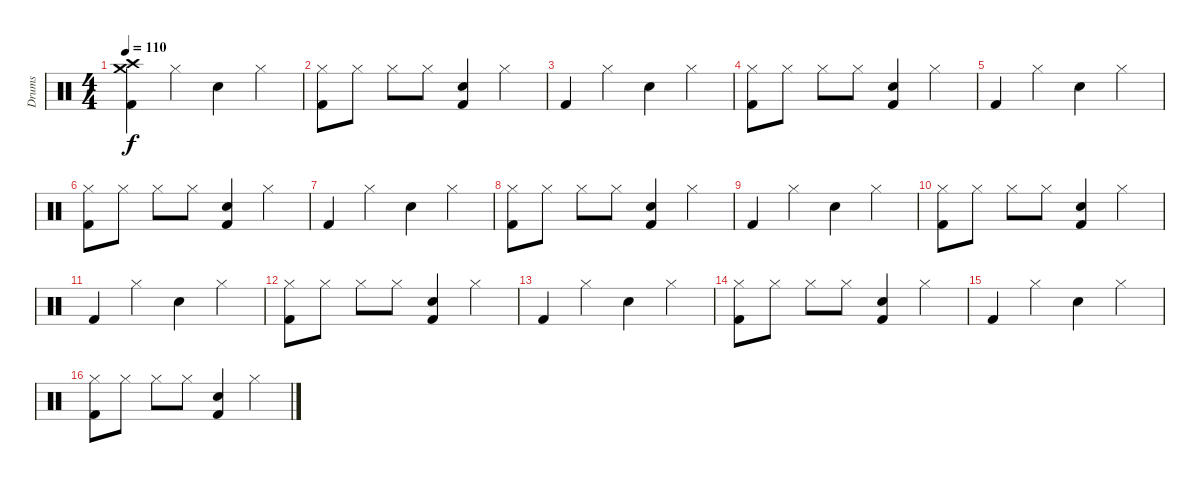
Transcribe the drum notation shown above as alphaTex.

\track ("Drums" "Drums") {instrument percussion}
\staff {score}
\articulation defaults
\ts (4 4)
\tempo 110
\clef neutral
\ks c
("Crash medium (hit)" "Crash high (hit)" "Kick (hit) 2").4{dy f} "Hi-Hat (closed)".4 "Snare (hit) 2".4 "Hi-Hat (closed)".4 |
("Hi-Hat (closed)" "Kick (hit) 2").8 "Hi-Hat (closed)".8 "Hi-Hat (closed)".8 "Hi-Hat (closed)".8 ("Snare (hit) 2" "Kick (hit) 2").4 "Hi-Hat (closed)".4 |
"Kick (hit) 2".4 "Hi-Hat (closed)".4 "Snare (hit) 2".4 "Hi-Hat (closed)".4 |
("Hi-Hat (closed)" "Kick (hit) 2").8 "Hi-Hat (closed)".8 "Hi-Hat (closed)".8 "Hi-Hat (closed)".8 ("Snare (hit) 2" "Kick (hit) 2").4 "Hi-Hat (closed)".4 |
"Kick (hit) 2".4 "Hi-Hat (closed)".4 "Snare (hit) 2".4 "Hi-Hat (closed)".4 |
("Hi-Hat (closed)" "Kick (hit) 2").8 "Hi-Hat (closed)".8 "Hi-Hat (closed)".8 "Hi-Hat (closed)".8 ("Snare (hit) 2" "Kick (hit) 2").4 "Hi-Hat (closed)".4 |
"Kick (hit) 2".4 "Hi-Hat (closed)".4 "Snare (hit) 2".4 "Hi-Hat (closed)".4 |
("Hi-Hat (closed)" "Kick (hit) 2").8 "Hi-Hat (closed)".8 "Hi-Hat (closed)".8 "Hi-Hat (closed)".8 ("Snare (hit) 2" "Kick (hit) 2").4 "Hi-Hat (closed)".4 |
"Kick (hit) 2".4 "Hi-Hat (closed)".4 "Snare (hit) 2".4 "Hi-Hat (closed)".4 |
("Hi-Hat (closed)" "Kick (hit) 2").8 "Hi-Hat (closed)".8 "Hi-Hat (closed)".8 "Hi-Hat (closed)".8 ("Snare (hit) 2" "Kick (hit) 2").4 "Hi-Hat (closed)".4 |
"Kick (hit) 2".4 "Hi-Hat (closed)".4 "Snare (hit) 2".4 "Hi-Hat (closed)".4 |
("Hi-Hat (closed)" "Kick (hit) 2").8 "Hi-Hat (closed)".8 "Hi-Hat (closed)".8 "Hi-Hat (closed)".8 ("Snare (hit) 2" "Kick (hit) 2").4 "Hi-Hat (closed)".4 |
"Kick (hit) 2".4 "Hi-Hat (closed)".4 "Snare (hit) 2".4 "Hi-Hat (closed)".4 |
("Hi-Hat (closed)" "Kick (hit) 2").8 "Hi-Hat (closed)".8 "Hi-Hat (closed)".8 "Hi-Hat (closed)".8 ("Snare (hit) 2" "Kick (hit) 2").4 "Hi-Hat (closed)".4 |
"Kick (hit) 2".4 "Hi-Hat (closed)".4 "Snare (hit) 2".4 "Hi-Hat (closed)".4 |
("Hi-Hat (closed)" "Kick (hit) 2").8 "Hi-Hat (closed)".8 "Hi-Hat (closed)".8 "Hi-Hat (closed)".8 ("Snare (hit) 2" "Kick (hit) 2").4 "Hi-Hat (closed)".4
